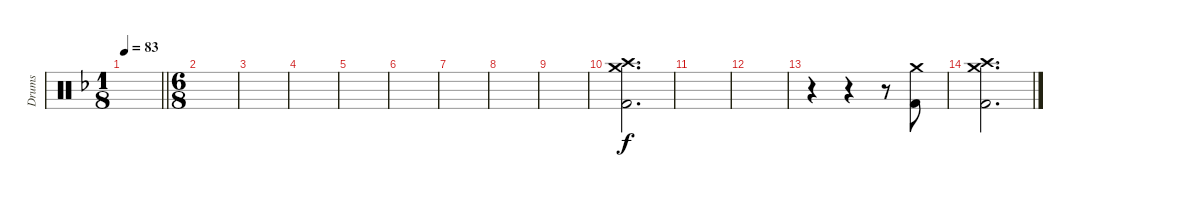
\track ("Drums" "Drums") {instrument percussion}
\staff {score}
\articulation defaults
\ts (1 8)
\tempo 83
\clef neutral
\barLineRight lightlight
\ks f
|
\ts (6 8)
|
|
|
|
|
|
|
|
("Crash high (hit)" "Crash medium (hit)" "Kick (hit) 2").2{d} |
|
|
r.4 r.4 r.8 ("Crash medium (hit)" "Kick (hit) 2").8 |
("Crash medium (hit)" "Crash high (hit)" "Kick (hit) 2").2{d}
